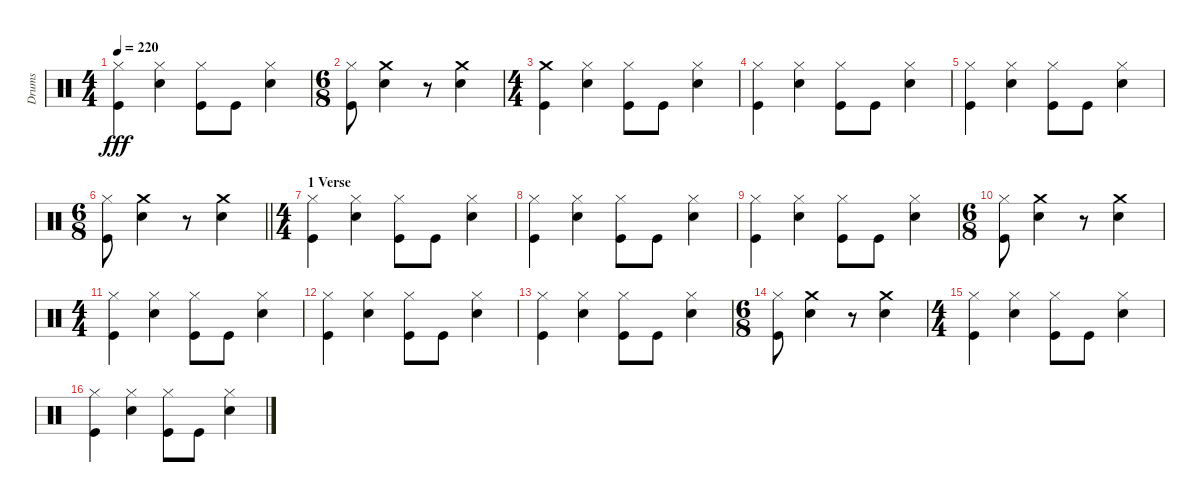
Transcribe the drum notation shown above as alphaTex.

\track ("Drums" "Drums") {instrument percussion}
\staff {score}
\articulation defaults
\ts (4 4)
\tempo 220
\clef neutral
\ks c
("Kick (hit)" "Hi-Hat (closed)").4{dy fff} ("Hi-Hat (closed)" "Snare (hit) 2").4 ("Hi-Hat (closed)" "Kick (hit)").8 "Kick (hit)".8 ("Hi-Hat (closed)" "Snare (hit) 2").4 |
\ts (6 8)
("Hi-Hat (closed)" "Kick (hit)").8 ("Snare (hit) 2" "Crash medium (hit)").4 r.8 ("Snare (hit) 2" "Crash medium (hit)").4 |
\ts (4 4)
("Kick (hit)" "Crash medium (hit)").4 ("Snare (hit) 2" "Hi-Hat (closed)").4 ("Hi-Hat (closed)" "Kick (hit)").8 "Kick (hit)".8 ("Hi-Hat (closed)" "Snare (hit) 2").4 |
("Kick (hit)" "Hi-Hat (closed)").4 ("Hi-Hat (closed)" "Snare (hit) 2").4 ("Hi-Hat (closed)" "Kick (hit)").8 "Kick (hit)".8 ("Hi-Hat (closed)" "Snare (hit) 2").4 |
("Kick (hit)" "Hi-Hat (closed)").4 ("Hi-Hat (closed)" "Snare (hit) 2").4 ("Hi-Hat (closed)" "Kick (hit)").8 "Kick (hit)".8 ("Hi-Hat (closed)" "Snare (hit) 2").4 |
\ts (6 8)
\barLineRight lightlight
("Hi-Hat (closed)" "Kick (hit)").8 ("Snare (hit) 2" "Crash medium (hit)").4 r.8 ("Snare (hit) 2" "Crash medium (hit)").4 |
\ts (4 4)
\section ("" "1 Verse")
("Kick (hit)" "Hi-Hat (closed)").4 ("Hi-Hat (closed)" "Snare (hit) 2").4 ("Kick (hit)" "Hi-Hat (closed)").8 "Kick (hit)".8 ("Snare (hit) 2" "Hi-Hat (closed)").4 |
("Kick (hit)" "Hi-Hat (closed)").4 ("Snare (hit) 2" "Hi-Hat (closed)").4 ("Kick (hit)" "Hi-Hat (closed)").8 "Kick (hit)".8 ("Hi-Hat (closed)" "Snare (hit) 2").4 |
("Kick (hit)" "Hi-Hat (closed)").4 ("Snare (hit) 2" "Hi-Hat (closed)").4 ("Kick (hit)" "Hi-Hat (closed)").8 "Kick (hit)".8 ("Snare (hit) 2" "Hi-Hat (closed)").4 |
\ts (6 8)
("Hi-Hat (closed)" "Kick (hit)").8 ("Snare (hit) 2" "Crash medium (hit)").4 r.8 ("Snare (hit) 2" "Crash medium (hit)").4 |
\ts (4 4)
("Kick (hit)" "Hi-Hat (closed)").4 ("Snare (hit) 2" "Hi-Hat (closed)").4 ("Kick (hit)" "Hi-Hat (closed)").8 "Kick (hit)".8 ("Snare (hit) 2" "Hi-Hat (closed)").4 |
("Hi-Hat (closed)" "Kick (hit)").4 ("Snare (hit) 2" "Hi-Hat (closed)").4 ("Kick (hit)" "Hi-Hat (closed)").8 "Kick (hit)".8 ("Snare (hit) 2" "Hi-Hat (closed)").4 |
("Kick (hit)" "Hi-Hat (closed)").4 ("Snare (hit) 2" "Hi-Hat (closed)").4 ("Hi-Hat (closed)" "Kick (hit)").8 "Kick (hit)".8 ("Snare (hit) 2" "Hi-Hat (closed)").4 |
\ts (6 8)
("Hi-Hat (closed)" "Kick (hit)").8 ("Snare (hit) 2" "Crash medium (hit)").4 r.8 ("Snare (hit) 2" "Crash medium (hit)").4 |
\ts (4 4)
("Kick (hit)" "Hi-Hat (closed)").4 ("Hi-Hat (closed)" "Snare (hit) 2").4 ("Kick (hit)" "Hi-Hat (closed)").8 "Kick (hit)".8 ("Snare (hit) 2" "Hi-Hat (closed)").4 |
("Kick (hit)" "Hi-Hat (closed)").4 ("Snare (hit) 2" "Hi-Hat (closed)").4 ("Kick (hit)" "Hi-Hat (closed)").8 "Kick (hit)".8 ("Snare (hit) 2" "Hi-Hat (closed)").4
